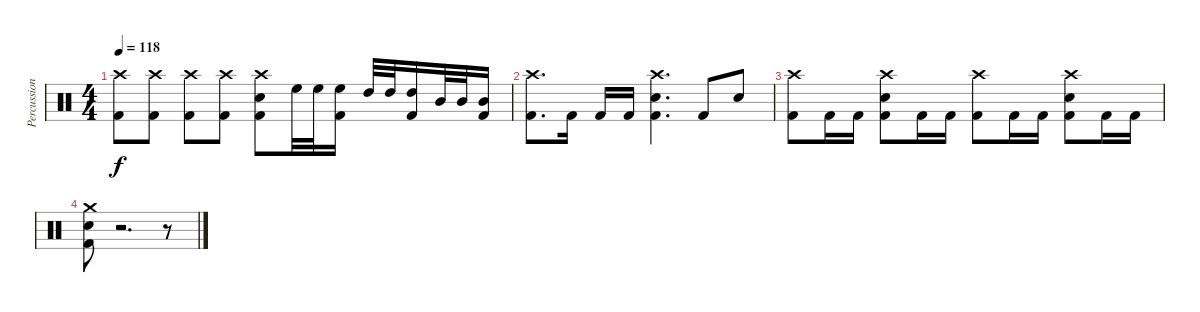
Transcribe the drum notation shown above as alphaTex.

\track ("Percussions" "Percussion") {instrument percussion}
\staff {score}
\articulation defaults
\ts (4 4)
\tempo 118
\clef neutral
\ks c
("Crash high (hit)" "Kick (hit) 2").8{dy f} ("Crash high (hit)" "Kick (hit) 2").8 ("Crash high (hit)" "Kick (hit) 2").8 ("Crash high (hit)" "Kick (hit) 2").8 ("Crash high (hit)" "Snare (hit) 2" "Kick (hit) 2").8 "High Floor Tom (hit)".32 "High Floor Tom (hit)".32 ("High Floor Tom (hit)" "Kick (hit) 2").16 "High Tom (hit)".32 "High Tom (hit)".32 ("High Tom (hit)" "Kick (hit) 2").16 "Mid Tom (hit)".32 "Mid Tom (hit)".32 ("Mid Tom (hit)" "Kick (hit) 2").16 |
("Crash high (hit)" "Kick (hit) 2").8{d} "Kick (hit) 2".16 "Kick (hit) 2".16 "Kick (hit) 2".16 ("Crash high (hit)" "Snare (hit) 2" "Kick (hit) 2").4{d} "Kick (hit) 2".8 "Snare (hit) 2".8 |
("Crash high (hit)" "Kick (hit) 2").8 "Kick (hit) 2".16 "Kick (hit) 2".16 ("Crash high (hit)" "Snare (hit) 2" "Kick (hit) 2").8 "Kick (hit) 2".16 "Kick (hit) 2".16 ("Crash high (hit)" "Kick (hit) 2").8 "Kick (hit) 2".16 "Kick (hit) 2".16 ("Crash high (hit)" "Snare (hit) 2" "Kick (hit) 2").8 "Kick (hit) 2".16 "Kick (hit) 2".16 |
("Crash medium (hit)" "Snare (hit) 2" "Kick (hit) 2").8 r.2{d} r.8
